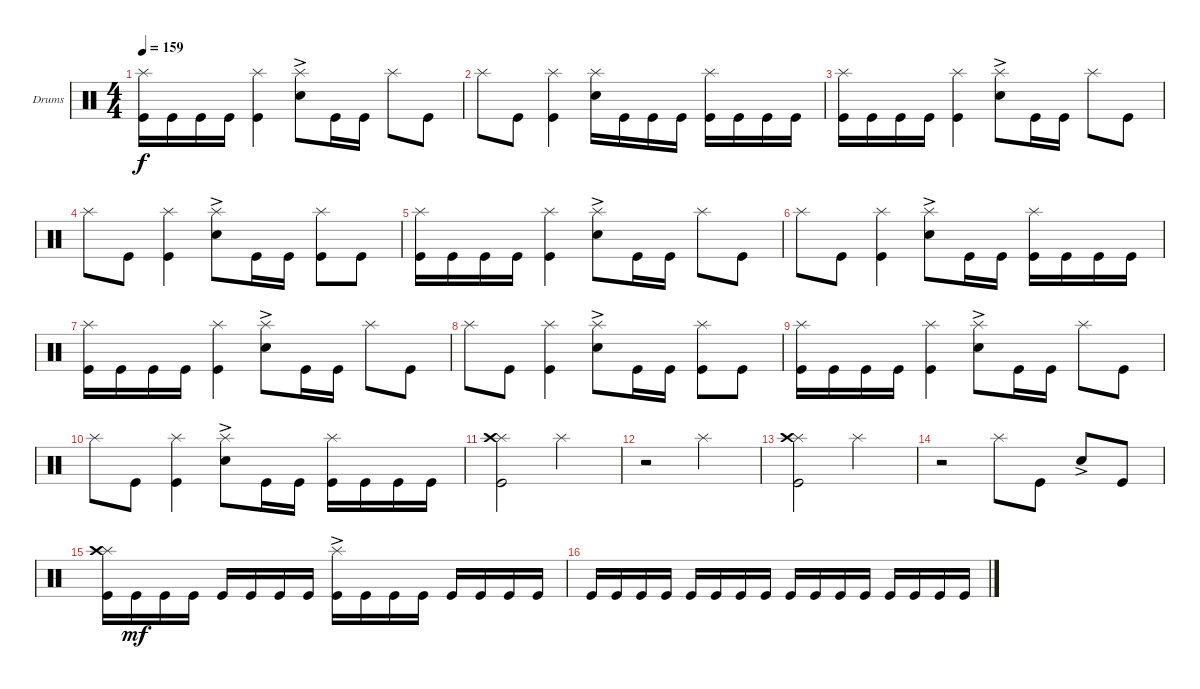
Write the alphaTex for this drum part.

\defaultSystemsLayout 4
\bracketExtendMode groupsimilarinstruments
\firstSystemTrackNameOrientation horizontal
\otherSystemsTrackNameOrientation horizontal
\track ("Drumkit" "Drums") {instrument percussion}
\staff {score}
\articulation defaults
\ts (4 4)
\tempo 159
\clef neutral
\ks c
("Kick (hit)" "Splash (hit)").16{dy f} "Kick (hit)".16 "Kick (hit)".16 "Kick (hit)".16 ("Kick (hit)" "Splash (hit)").4 ("Snare (hit) 2"{ac} "Splash (hit)").8 "Kick (hit)".16 "Kick (hit)".16 "Splash (hit)".8 "Kick (hit)".8 |
"Splash (hit)".8 "Kick (hit)".8 ("Kick (hit)" "Splash (hit)").4 ("Snare (hit) 2" "Splash (hit)").16 "Kick (hit)".16 "Kick (hit)".16 "Kick (hit)".16 ("Kick (hit)" "Splash (hit)").16 "Kick (hit)".16 "Kick (hit)".16 "Kick (hit)".16 |
("Kick (hit)" "Splash (hit)").16 "Kick (hit)".16 "Kick (hit)".16 "Kick (hit)".16 ("Kick (hit)" "Splash (hit)").4 ("Snare (hit) 2"{ac} "Splash (hit)").8 "Kick (hit)".16 "Kick (hit)".16 "Splash (hit)".8 "Kick (hit)".8 |
"Splash (hit)".8 "Kick (hit)".8 ("Kick (hit)" "Splash (hit)").4 ("Snare (hit) 2"{ac} "Splash (hit)").8 "Kick (hit)".16 "Kick (hit)".16 ("Splash (hit)" "Kick (hit)").8 "Kick (hit)".8 |
("Kick (hit)" "Splash (hit)").16 "Kick (hit)".16 "Kick (hit)".16 "Kick (hit)".16 ("Kick (hit)" "Splash (hit)").4 ("Snare (hit) 2"{ac} "Splash (hit)").8 "Kick (hit)".16 "Kick (hit)".16 "Splash (hit)".8 "Kick (hit)".8 |
"Splash (hit)".8 "Kick (hit)".8 ("Kick (hit)" "Splash (hit)").4 ("Snare (hit) 2"{ac} "Splash (hit)").8 "Kick (hit)".16 "Kick (hit)".16 ("Splash (hit)" "Kick (hit)").16 "Kick (hit)".16 "Kick (hit)".16 "Kick (hit)".16 |
("Kick (hit)" "Splash (hit)").16 "Kick (hit)".16 "Kick (hit)".16 "Kick (hit)".16 ("Kick (hit)" "Splash (hit)").4 ("Snare (hit) 2"{ac} "Splash (hit)").8 "Kick (hit)".16 "Kick (hit)".16 "Splash (hit)".8 "Kick (hit)".8 |
"Splash (hit)".8 "Kick (hit)".8 ("Kick (hit)" "Splash (hit)").4 ("Snare (hit) 2"{ac} "Splash (hit)").8 "Kick (hit)".16 "Kick (hit)".16 ("Splash (hit)" "Kick (hit)").8 "Kick (hit)".8 |
("Kick (hit)" "Splash (hit)").16 "Kick (hit)".16 "Kick (hit)".16 "Kick (hit)".16 ("Kick (hit)" "Splash (hit)").4 ("Snare (hit) 2"{ac} "Splash (hit)").8 "Kick (hit)".16 "Kick (hit)".16 "Splash (hit)".8 "Kick (hit)".8 |
"Splash (hit)".8 "Kick (hit)".8 ("Kick (hit)" "Splash (hit)").4 ("Snare (hit) 2"{ac} "Splash (hit)").8 "Kick (hit)".16 "Kick (hit)".16 ("Splash (hit)" "Kick (hit)").16 "Kick (hit)".16 "Kick (hit)".16 "Kick (hit)".16 |
("Kick (hit)" "Splash (hit)" "Crash high (hit)").2 "Splash (hit)".2 |
r.2 "Splash (hit)".2 |
("Kick (hit)" "Splash (hit)" "Crash high (hit)").2 "Splash (hit)".2 |
r.2 "Splash (hit)".8 "Kick (hit)".8 "Snare (hit) 2"{ac}.8 "Kick (hit)".8 |
("Kick (hit)" "Splash (hit)" "Crash high (hit)").16 "Kick (hit)".16{dy mf} "Kick (hit)".16 "Kick (hit)".16 "Kick (hit)".16 "Kick (hit)".16 "Kick (hit)".16 "Kick (hit)".16 ("Kick (hit)" "Splash (hit)"{ac}).16 "Kick (hit)".16 "Kick (hit)".16 "Kick (hit)".16 "Kick (hit)".16 "Kick (hit)".16 "Kick (hit)".16 "Kick (hit)".16 |
"Kick (hit)".16 "Kick (hit)".16 "Kick (hit)".16 "Kick (hit)".16 "Kick (hit)".16 "Kick (hit)".16 "Kick (hit)".16 "Kick (hit)".16 "Kick (hit)".16 "Kick (hit)".16 "Kick (hit)".16 "Kick (hit)".16 "Kick (hit)".16 "Kick (hit)".16 "Kick (hit)".16 "Kick (hit)".16
